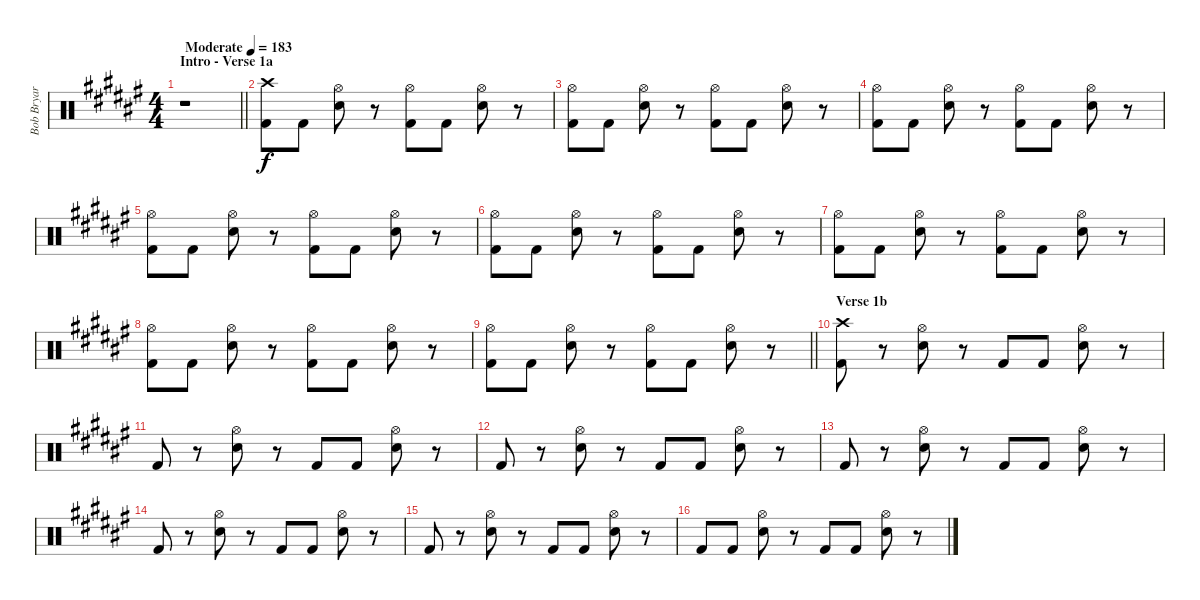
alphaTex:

\track ("Bob Bryar" "Bob Bryar") {instrument percussion}
\staff {score}
\articulation defaults
\ts (4 4)
\section ("" "Intro - Verse 1a")
\tempo (183 "Moderate")
\clef neutral
\barLineRight lightlight
\ks d#minor
r.1{dy f} |
("Crash high (hit)" "Kick (hit) 2").8 "Kick (hit) 2".8 ("Hi-Hat (open)" "Electric Snare (hit)").8 r.8 ("Hi-Hat (open)" "Kick (hit) 2").8 "Kick (hit) 2".8 ("Hi-Hat (open)" "Electric Snare (hit)").8 r.8 |
("Hi-Hat (open)" "Kick (hit) 2").8 "Kick (hit) 2".8 ("Hi-Hat (open)" "Electric Snare (hit)").8 r.8 ("Hi-Hat (open)" "Kick (hit) 2").8 "Kick (hit) 2".8 ("Hi-Hat (open)" "Electric Snare (hit)").8 r.8 |
("Hi-Hat (open)" "Kick (hit) 2").8 "Kick (hit) 2".8 ("Hi-Hat (open)" "Electric Snare (hit)").8 r.8 ("Hi-Hat (open)" "Kick (hit) 2").8 "Kick (hit) 2".8 ("Hi-Hat (open)" "Electric Snare (hit)").8 r.8 |
("Hi-Hat (open)" "Kick (hit) 2").8 "Kick (hit) 2".8 ("Hi-Hat (open)" "Electric Snare (hit)").8 r.8 ("Hi-Hat (open)" "Kick (hit) 2").8 "Kick (hit) 2".8 ("Hi-Hat (open)" "Electric Snare (hit)").8 r.8 |
("Hi-Hat (open)" "Kick (hit) 2").8 "Kick (hit) 2".8 ("Hi-Hat (open)" "Electric Snare (hit)").8 r.8 ("Hi-Hat (open)" "Kick (hit) 2").8 "Kick (hit) 2".8 ("Hi-Hat (open)" "Electric Snare (hit)").8 r.8 |
("Hi-Hat (open)" "Kick (hit) 2").8 "Kick (hit) 2".8 ("Hi-Hat (open)" "Electric Snare (hit)").8 r.8 ("Hi-Hat (open)" "Kick (hit) 2").8 "Kick (hit) 2".8 ("Hi-Hat (open)" "Electric Snare (hit)").8 r.8 |
("Hi-Hat (open)" "Kick (hit) 2").8 "Kick (hit) 2".8 ("Hi-Hat (open)" "Electric Snare (hit)").8 r.8 ("Hi-Hat (open)" "Kick (hit) 2").8 "Kick (hit) 2".8 ("Hi-Hat (open)" "Electric Snare (hit)").8 r.8 |
\barLineRight lightlight
("Hi-Hat (open)" "Kick (hit) 2").8 "Kick (hit) 2".8 ("Hi-Hat (open)" "Electric Snare (hit)").8 r.8 ("Hi-Hat (open)" "Kick (hit) 2").8 "Kick (hit) 2".8 ("Hi-Hat (open)" "Electric Snare (hit)").8 r.8 |
\section ("" "Verse 1b")
("Crash high (hit)" "Kick (hit) 2").8 r.8 ("Hi-Hat (open)" "Electric Snare (hit)").8 r.8 "Kick (hit) 2".8 "Kick (hit) 2".8 ("Hi-Hat (open)" "Electric Snare (hit)").8 r.8 |
"Kick (hit) 2".8 r.8 ("Hi-Hat (open)" "Electric Snare (hit)").8 r.8 "Kick (hit) 2".8 "Kick (hit) 2".8 ("Hi-Hat (open)" "Electric Snare (hit)").8 r.8 |
"Kick (hit) 2".8 r.8 ("Hi-Hat (open)" "Electric Snare (hit)").8 r.8 "Kick (hit) 2".8 "Kick (hit) 2".8 ("Hi-Hat (open)" "Electric Snare (hit)").8 r.8 |
"Kick (hit) 2".8 r.8 ("Hi-Hat (open)" "Electric Snare (hit)").8 r.8 "Kick (hit) 2".8 "Kick (hit) 2".8 ("Hi-Hat (open)" "Electric Snare (hit)").8 r.8 |
"Kick (hit) 2".8 r.8 ("Hi-Hat (open)" "Electric Snare (hit)").8 r.8 "Kick (hit) 2".8 "Kick (hit) 2".8 ("Hi-Hat (open)" "Electric Snare (hit)").8 r.8 |
"Kick (hit) 2".8 r.8 ("Hi-Hat (open)" "Electric Snare (hit)").8 r.8 "Kick (hit) 2".8 "Kick (hit) 2".8 ("Hi-Hat (open)" "Electric Snare (hit)").8 r.8 |
"Kick (hit) 2".8 "Kick (hit) 2".8 ("Hi-Hat (open)" "Electric Snare (hit)").8 r.8 "Kick (hit) 2".8 "Kick (hit) 2".8 ("Hi-Hat (open)" "Electric Snare (hit)").8 r.8
